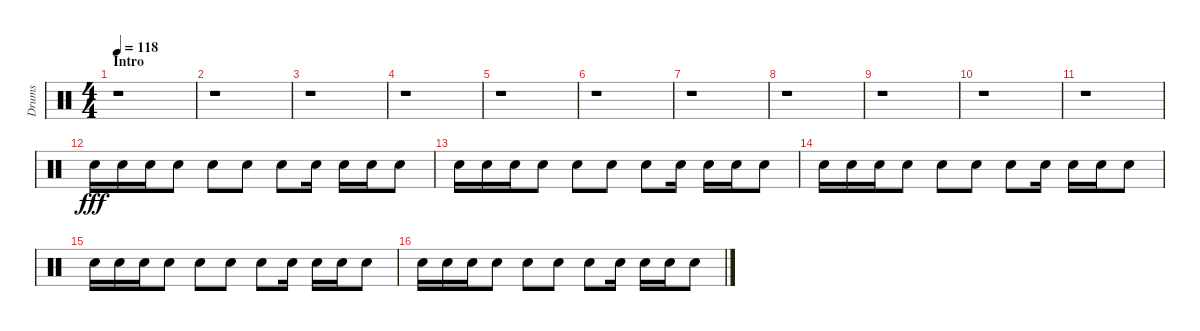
\track ("Drums" "Drums") {instrument percussion}
\staff {score}
\articulation defaults
\ts (4 4)
\section ("" "Intro")
\tempo 118
\tempo 130
\tempo 118
\clef neutral
\ks c
r.1{dy fff} |
r.1 |
r.1 |
r.1 |
r.1 |
r.1 |
r.1 |
r.1 |
r.1 |
r.1 |
r.1 |
"Electric Snare (hit)".16 "Electric Snare (hit)".16 "Electric Snare (hit)".16 "Electric Snare (hit)".8 "Electric Snare (hit)".8 "Electric Snare (hit)".8 "Electric Snare (hit)".8 "Electric Snare (hit)".16 "Electric Snare (hit)".16 "Electric Snare (hit)".16 "Electric Snare (hit)".8 |
"Electric Snare (hit)".16 "Electric Snare (hit)".16 "Electric Snare (hit)".16 "Electric Snare (hit)".8 "Electric Snare (hit)".8 "Electric Snare (hit)".8 "Electric Snare (hit)".8 "Electric Snare (hit)".16 "Electric Snare (hit)".16 "Electric Snare (hit)".16 "Electric Snare (hit)".8 |
"Electric Snare (hit)".16 "Electric Snare (hit)".16 "Electric Snare (hit)".16 "Electric Snare (hit)".8 "Electric Snare (hit)".8 "Electric Snare (hit)".8 "Electric Snare (hit)".8 "Electric Snare (hit)".16 "Electric Snare (hit)".16 "Electric Snare (hit)".16 "Electric Snare (hit)".8 |
"Electric Snare (hit)".16 "Electric Snare (hit)".16 "Electric Snare (hit)".16 "Electric Snare (hit)".8 "Electric Snare (hit)".8 "Electric Snare (hit)".8 "Electric Snare (hit)".8 "Electric Snare (hit)".16 "Electric Snare (hit)".16 "Electric Snare (hit)".16 "Electric Snare (hit)".8 |
"Electric Snare (hit)".16 "Electric Snare (hit)".16 "Electric Snare (hit)".16 "Electric Snare (hit)".8 "Electric Snare (hit)".8 "Electric Snare (hit)".8 "Electric Snare (hit)".8 "Electric Snare (hit)".16 "Electric Snare (hit)".16 "Electric Snare (hit)".16 "Electric Snare (hit)".8
